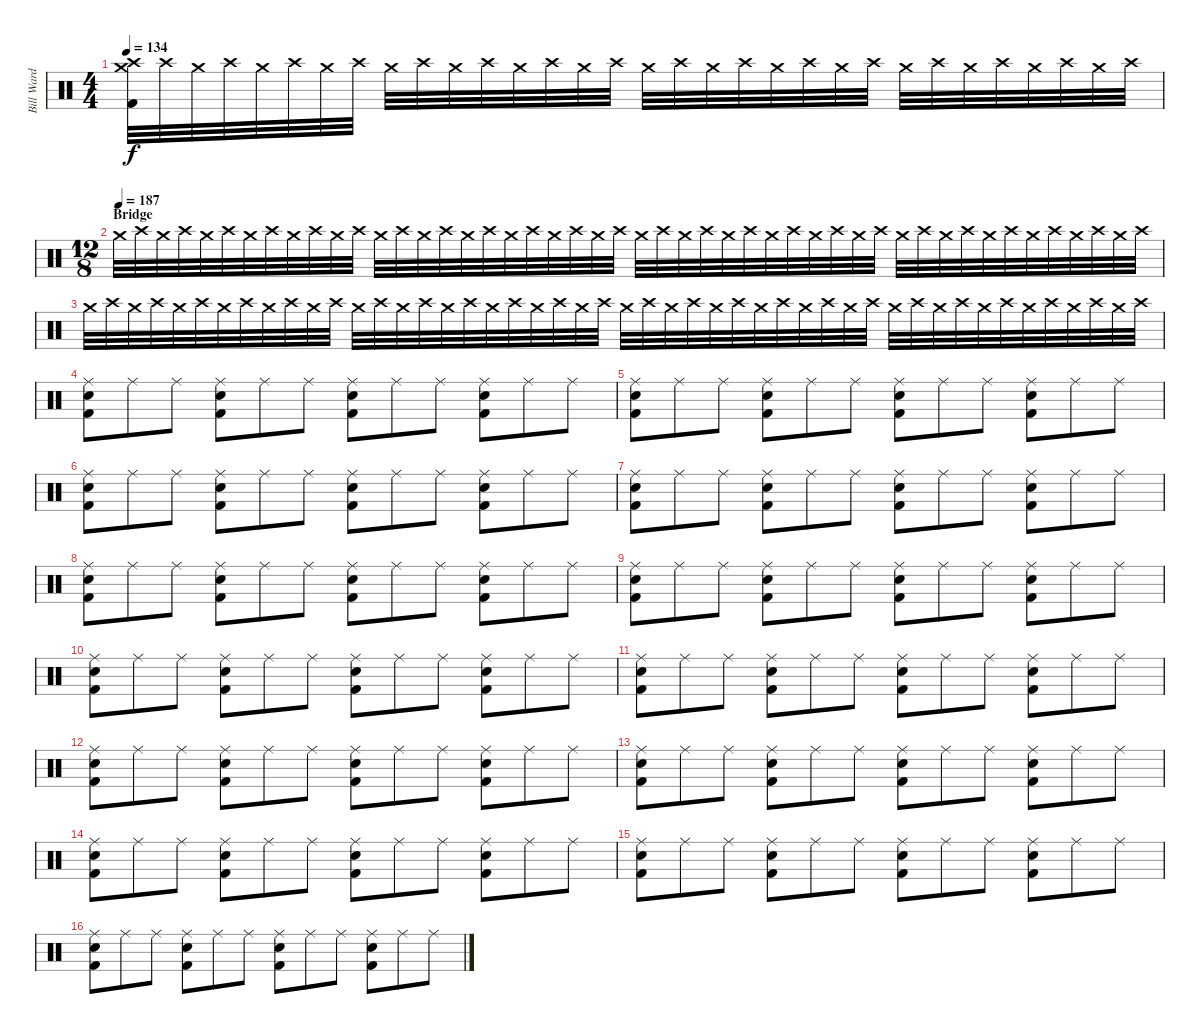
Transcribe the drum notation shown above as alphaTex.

\track ("Bill Ward - Drums" "Bill Ward ") {instrument percussion}
\staff {score}
\articulation defaults
\ts (4 4)
\tempo 134
\clef neutral
\ks c
("Crash high (hit)" "Crash medium (hit)" "Kick (hit) 2").32{dy f} "Crash high (hit)".32 "Crash medium (hit)".32 "Crash high (hit)".32 "Crash medium (hit)".32 "Crash high (hit)".32 "Crash medium (hit)".32 "Crash high (hit)".32 "Crash medium (hit)".32 "Crash high (hit)".32 "Crash medium (hit)".32 "Crash high (hit)".32 "Crash medium (hit)".32 "Crash high (hit)".32 "Crash medium (hit)".32 "Crash high (hit)".32 "Crash medium (hit)".32 "Crash high (hit)".32 "Crash medium (hit)".32 "Crash high (hit)".32 "Crash medium (hit)".32 "Crash high (hit)".32 "Crash medium (hit)".32 "Crash high (hit)".32 "Crash medium (hit)".32 "Crash high (hit)".32 "Crash medium (hit)".32 "Crash high (hit)".32 "Crash medium (hit)".32 "Crash high (hit)".32 "Crash medium (hit)".32 "Crash high (hit)".32 |
\ts (12 8)
\section ("" "Bridge")
\tempo (187)
"Crash medium (hit)".32 "Crash high (hit)".32 "Crash medium (hit)".32 "Crash high (hit)".32 "Crash medium (hit)".32 "Crash high (hit)".32 "Crash medium (hit)".32 "Crash high (hit)".32 "Crash medium (hit)".32 "Crash high (hit)".32 "Crash medium (hit)".32 "Crash high (hit)".32 "Crash medium (hit)".32 "Crash high (hit)".32 "Crash medium (hit)".32 "Crash high (hit)".32 "Crash medium (hit)".32 "Crash high (hit)".32 "Crash medium (hit)".32 "Crash high (hit)".32 "Crash medium (hit)".32 "Crash high (hit)".32 "Crash medium (hit)".32 "Crash high (hit)".32 "Crash medium (hit)".32 "Crash high (hit)".32 "Crash medium (hit)".32 "Crash high (hit)".32 "Crash medium (hit)".32 "Crash high (hit)".32 "Crash medium (hit)".32 "Crash high (hit)".32 "Crash medium (hit)".32 "Crash high (hit)".32 "Crash medium (hit)".32 "Crash high (hit)".32 "Crash medium (hit)".32 "Crash high (hit)".32 "Crash medium (hit)".32 "Crash high (hit)".32 "Crash medium (hit)".32 "Crash high (hit)".32 "Crash medium (hit)".32 "Crash high (hit)".32 "Crash medium (hit)".32 "Crash high (hit)".32 "Crash medium (hit)".32 "Crash high (hit)".32 |
"Crash medium (hit)".32 "Crash high (hit)".32 "Crash medium (hit)".32 "Crash high (hit)".32 "Crash medium (hit)".32 "Crash high (hit)".32 "Crash medium (hit)".32 "Crash high (hit)".32 "Crash medium (hit)".32 "Crash high (hit)".32 "Crash medium (hit)".32 "Crash high (hit)".32 "Crash medium (hit)".32 "Crash high (hit)".32 "Crash medium (hit)".32 "Crash high (hit)".32 "Crash medium (hit)".32 "Crash high (hit)".32 "Crash medium (hit)".32 "Crash high (hit)".32 "Crash medium (hit)".32 "Crash high (hit)".32 "Crash medium (hit)".32 "Crash high (hit)".32 "Crash medium (hit)".32 "Crash high (hit)".32 "Crash medium (hit)".32 "Crash high (hit)".32 "Crash medium (hit)".32 "Crash high (hit)".32 "Crash medium (hit)".32 "Crash high (hit)".32 "Crash medium (hit)".32 "Crash high (hit)".32 "Crash medium (hit)".32 "Crash high (hit)".32 "Crash medium (hit)".32 "Crash high (hit)".32 "Crash medium (hit)".32 "Crash high (hit)".32 "Crash medium (hit)".32 "Crash high (hit)".32 "Crash medium (hit)".32 "Crash high (hit)".32 "Crash medium (hit)".32 "Crash high (hit)".32 "Crash medium (hit)".32 "Crash high (hit)".32 |
("Ride (middle)" "Snare (hit) 2" "Kick (hit) 2").8 "Ride (middle)".8 "Ride (middle)".8 ("Ride (middle)" "Snare (hit) 2" "Kick (hit) 2").8 "Ride (middle)".8 "Ride (middle)".8 ("Ride (middle)" "Snare (hit) 2" "Kick (hit) 2").8 "Ride (middle)".8 "Ride (middle)".8 ("Ride (middle)" "Snare (hit) 2" "Kick (hit) 2").8 "Ride (middle)".8 "Ride (middle)".8 |
("Ride (middle)" "Snare (hit) 2" "Kick (hit) 2").8 "Ride (middle)".8 "Ride (middle)".8 ("Ride (middle)" "Snare (hit) 2" "Kick (hit) 2").8 "Ride (middle)".8 "Ride (middle)".8 ("Ride (middle)" "Snare (hit) 2" "Kick (hit) 2").8 "Ride (middle)".8 "Ride (middle)".8 ("Ride (middle)" "Snare (hit) 2" "Kick (hit) 2").8 "Ride (middle)".8 "Ride (middle)".8 |
("Ride (middle)" "Snare (hit) 2" "Kick (hit) 2").8 "Ride (middle)".8 "Ride (middle)".8 ("Ride (middle)" "Snare (hit) 2" "Kick (hit) 2").8 "Ride (middle)".8 "Ride (middle)".8 ("Ride (middle)" "Snare (hit) 2" "Kick (hit) 2").8 "Ride (middle)".8 "Ride (middle)".8 ("Ride (middle)" "Snare (hit) 2" "Kick (hit) 2").8 "Ride (middle)".8 "Ride (middle)".8 |
("Ride (middle)" "Snare (hit) 2" "Kick (hit) 2").8 "Ride (middle)".8 "Ride (middle)".8 ("Ride (middle)" "Snare (hit) 2" "Kick (hit) 2").8 "Ride (middle)".8 "Ride (middle)".8 ("Ride (middle)" "Snare (hit) 2" "Kick (hit) 2").8 "Ride (middle)".8 "Ride (middle)".8 ("Ride (middle)" "Snare (hit) 2" "Kick (hit) 2").8 "Ride (middle)".8 "Ride (middle)".8 |
("Ride (middle)" "Snare (hit) 2" "Kick (hit) 2").8 "Ride (middle)".8 "Ride (middle)".8 ("Ride (middle)" "Snare (hit) 2" "Kick (hit) 2").8 "Ride (middle)".8 "Ride (middle)".8 ("Ride (middle)" "Snare (hit) 2" "Kick (hit) 2").8 "Ride (middle)".8 "Ride (middle)".8 ("Ride (middle)" "Snare (hit) 2" "Kick (hit) 2").8 "Ride (middle)".8 "Ride (middle)".8 |
("Ride (middle)" "Snare (hit) 2" "Kick (hit) 2").8 "Ride (middle)".8 "Ride (middle)".8 ("Ride (middle)" "Snare (hit) 2" "Kick (hit) 2").8 "Ride (middle)".8 "Ride (middle)".8 ("Ride (middle)" "Snare (hit) 2" "Kick (hit) 2").8 "Ride (middle)".8 "Ride (middle)".8 ("Ride (middle)" "Snare (hit) 2" "Kick (hit) 2").8 "Ride (middle)".8 "Ride (middle)".8 |
("Ride (middle)" "Snare (hit) 2" "Kick (hit) 2").8 "Ride (middle)".8 "Ride (middle)".8 ("Ride (middle)" "Snare (hit) 2" "Kick (hit) 2").8 "Ride (middle)".8 "Ride (middle)".8 ("Ride (middle)" "Snare (hit) 2" "Kick (hit) 2").8 "Ride (middle)".8 "Ride (middle)".8 ("Ride (middle)" "Snare (hit) 2" "Kick (hit) 2").8 "Ride (middle)".8 "Ride (middle)".8 |
("Ride (middle)" "Snare (hit) 2" "Kick (hit) 2").8 "Ride (middle)".8 "Ride (middle)".8 ("Ride (middle)" "Snare (hit) 2" "Kick (hit) 2").8 "Ride (middle)".8 "Ride (middle)".8 ("Ride (middle)" "Snare (hit) 2" "Kick (hit) 2").8 "Ride (middle)".8 "Ride (middle)".8 ("Ride (middle)" "Snare (hit) 2" "Kick (hit) 2").8 "Ride (middle)".8 "Ride (middle)".8 |
("Ride (middle)" "Snare (hit) 2" "Kick (hit) 2").8 "Ride (middle)".8 "Ride (middle)".8 ("Ride (middle)" "Snare (hit) 2" "Kick (hit) 2").8 "Ride (middle)".8 "Ride (middle)".8 ("Ride (middle)" "Snare (hit) 2" "Kick (hit) 2").8 "Ride (middle)".8 "Ride (middle)".8 ("Ride (middle)" "Snare (hit) 2" "Kick (hit) 2").8 "Ride (middle)".8 "Ride (middle)".8 |
("Ride (middle)" "Snare (hit) 2" "Kick (hit) 2").8 "Ride (middle)".8 "Ride (middle)".8 ("Ride (middle)" "Snare (hit) 2" "Kick (hit) 2").8 "Ride (middle)".8 "Ride (middle)".8 ("Ride (middle)" "Snare (hit) 2" "Kick (hit) 2").8 "Ride (middle)".8 "Ride (middle)".8 ("Ride (middle)" "Snare (hit) 2" "Kick (hit) 2").8 "Ride (middle)".8 "Ride (middle)".8 |
("Ride (middle)" "Snare (hit) 2" "Kick (hit) 2").8 "Ride (middle)".8 "Ride (middle)".8 ("Ride (middle)" "Snare (hit) 2" "Kick (hit) 2").8 "Ride (middle)".8 "Ride (middle)".8 ("Ride (middle)" "Snare (hit) 2" "Kick (hit) 2").8 "Ride (middle)".8 "Ride (middle)".8 ("Ride (middle)" "Snare (hit) 2" "Kick (hit) 2").8 "Ride (middle)".8 "Ride (middle)".8 |
("Ride (middle)" "Snare (hit) 2" "Kick (hit) 2").8 "Ride (middle)".8 "Ride (middle)".8 ("Ride (middle)" "Snare (hit) 2" "Kick (hit) 2").8 "Ride (middle)".8 "Ride (middle)".8 ("Ride (middle)" "Snare (hit) 2" "Kick (hit) 2").8 "Ride (middle)".8 "Ride (middle)".8 ("Ride (middle)" "Snare (hit) 2" "Kick (hit) 2").8 "Ride (middle)".8 "Ride (middle)".8 |
("Ride (middle)" "Snare (hit) 2" "Kick (hit) 2").8 "Ride (middle)".8 "Ride (middle)".8 ("Ride (middle)" "Snare (hit) 2" "Kick (hit) 2").8 "Ride (middle)".8 "Ride (middle)".8 ("Ride (middle)" "Snare (hit) 2" "Kick (hit) 2").8 "Ride (middle)".8 "Ride (middle)".8 ("Ride (middle)" "Snare (hit) 2" "Kick (hit) 2").8 "Ride (middle)".8 "Ride (middle)".8
